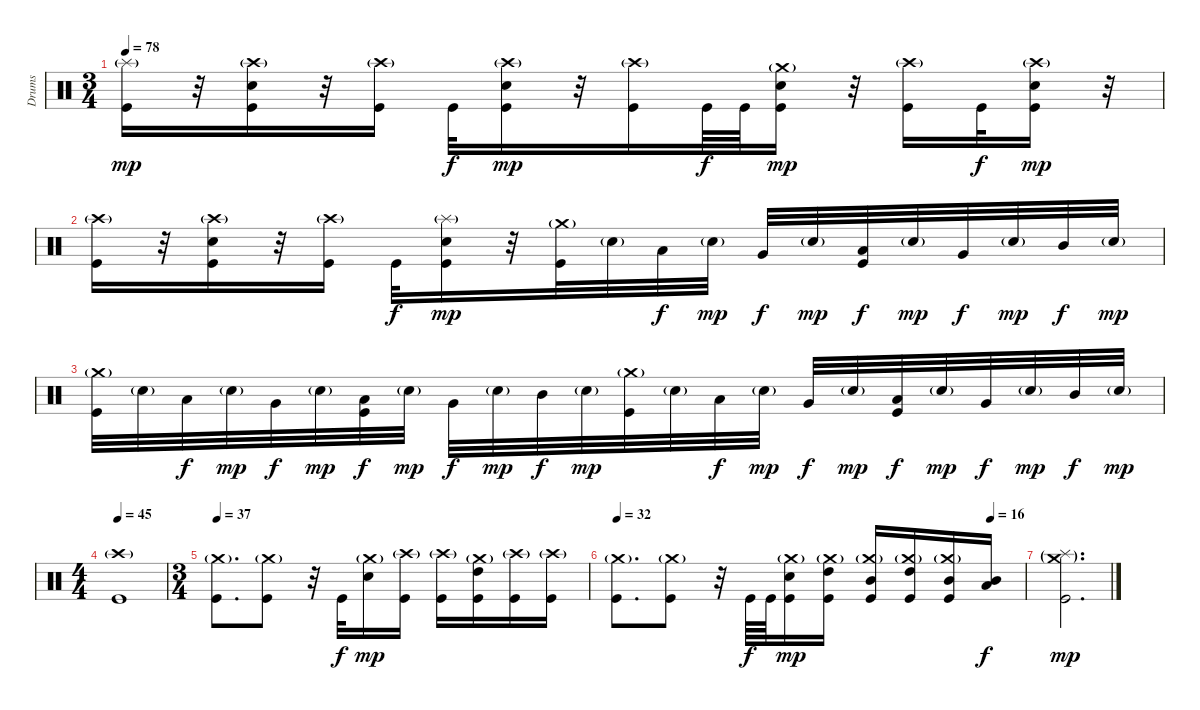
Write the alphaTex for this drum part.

\track ("Drums" "Drums") {instrument percussion}
\staff {score}
\articulation defaults
\ts (3 4)
\tempo 78
\clef neutral
\ks c
("Splash (hit)"{g} "Kick (hit)").16{dy mp} r.32 ("Crash high (hit)"{g} "Snare (hit) 2" "Kick (hit)").16 r.32 ("Crash high (hit)"{g} "Kick (hit)").16 "Kick (hit)".32{dy f} ("Crash high (hit)"{g} "Snare (hit) 2" "Kick (hit)").16{dy mp} r.32 ("Crash high (hit)"{g} "Kick (hit)").16 "Kick (hit)".64{dy f} "Kick (hit)".64 ("Crash medium (hit)"{g} "Snare (hit) 2" "Kick (hit)").16{dy mp} r.32 ("Crash high (hit)"{g} "Kick (hit)").16 "Kick (hit)".32{dy f} ("Crash high (hit)"{g} "Snare (hit) 2" "Kick (hit)").16{dy mp} r.32 |
("Crash high (hit)"{g} "Kick (hit)").16 r.32 ("Crash high (hit)"{g} "Snare (hit) 2" "Kick (hit)").16 r.32 ("Crash high (hit)"{g} "Kick (hit)").16 "Kick (hit)".32{dy f} ("Splash (hit)"{g} "Snare (hit) 2" "Kick (hit)").16{dy mp} r.32 ("Crash medium (hit)"{g} "Kick (hit)").32 "Snare (hit) 2"{g}.32 "Low Floor Tom (hit)".32{dy f} "Snare (hit) 2"{g}.32{dy mp} "Very Low Tom (hit)".32{dy f} "Snare (hit) 2"{g}.32{dy mp} ("Low Tom (hit)" "Kick (hit)").32{dy f} "Snare (hit) 2"{g}.32{dy mp} "Very Low Tom (hit)".32{dy f} "Snare (hit) 2"{g}.32{dy mp} "Mid Tom (hit)".32{dy f} "Snare (hit) 2"{g}.32{dy mp} |
("Crash medium (hit)"{g} "Kick (hit)").32 "Snare (hit) 2"{g}.32 "Low Floor Tom (hit)".32{dy f} "Snare (hit) 2"{g}.32{dy mp} "Very Low Tom (hit)".32{dy f} "Snare (hit) 2"{g}.32{dy mp} ("Low Tom (hit)" "Kick (hit)").32{dy f} "Snare (hit) 2"{g}.32{dy mp} "Very Low Tom (hit)".32{dy f} "Snare (hit) 2"{g}.32{dy mp} "Mid Tom (hit)".32{dy f} "Snare (hit) 2"{g}.32{dy mp} ("Crash medium (hit)"{g} "Kick (hit)").32 "Snare (hit) 2"{g}.32 "Low Floor Tom (hit)".32{dy f} "Snare (hit) 2"{g}.32{dy mp} "Very Low Tom (hit)".32{dy f} "Snare (hit) 2"{g}.32{dy mp} ("Low Tom (hit)" "Kick (hit)").32{dy f} "Snare (hit) 2"{g}.32{dy mp} "Very Low Tom (hit)".32{dy f} "Snare (hit) 2"{g}.32{dy mp} "Mid Tom (hit)".32{dy f} "Snare (hit) 2"{g}.32{dy mp} |
\ts (4 4)
\tempo 45
("Crash high (hit)"{g} "Kick (hit)").1 |
\ts (3 4)
\tempo 37
("Crash medium (hit)"{g} "Kick (hit)").8{d} ("Crash medium (hit)"{g} "Kick (hit)").8 r.32 "Kick (hit)".32{dy f} ("Crash medium (hit)"{g} "Snare (hit) 2").16{dy mp} ("Crash high (hit)"{g} "Kick (hit)").16 ("Crash high (hit)"{g} "Kick (hit)").16 ("Crash medium (hit)"{g} "High Tom (hit)" "Kick (hit)").16 ("Crash high (hit)"{g} "Kick (hit)").16 ("Crash high (hit)"{g} "Kick (hit)").16 |
\tempo 32
\tempo (16 0.9166666666666666)
("Crash medium (hit)"{g} "Kick (hit)").8{d} ("Crash medium (hit)"{g} "Kick (hit)").8 r.32 "Kick (hit)".64{dy f} "Kick (hit)".64 ("Crash medium (hit)"{g} "Snare (hit) 2" "Kick (hit)").16{dy mp} ("Crash medium (hit)"{g} "High Tom (hit)" "Kick (hit)").16 ("Crash medium (hit)"{g} "Mid Tom (hit)" "Kick (hit)").16 ("Crash medium (hit)"{g} "High Tom (hit)" "Kick (hit)").16 ("Crash medium (hit)"{g} "Mid Tom (hit)" "Kick (hit)").16 ("Mid Tom (hit)" "Low Tom (hit)").16{dy f} |
("Crash medium (hit)"{g} "Splash (hit)"{g} "Kick (hit)").2{d dy mp}
